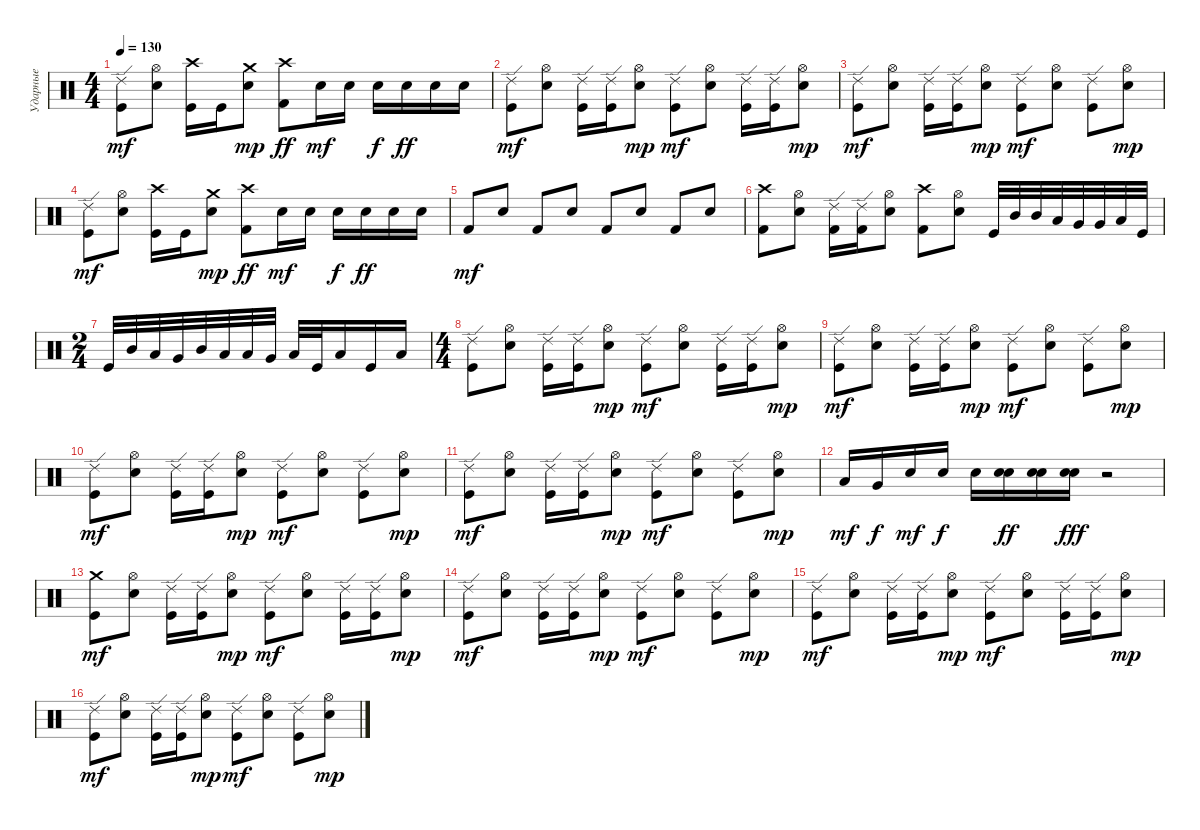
\track ("Ударные" "Ударные") {instrument percussion}
\staff {score}
\articulation defaults
\ts (4 4)
\tempo 130
\clef neutral
\ks c
("Kick (hit)" "Ride (edge) 2").8{dy mf} ("Electric Snare (hit)" "Hi-Hat (open)").8 ("Kick (hit)" "Crash high (hit)").16 "Kick (hit)".16 ("Electric Snare (hit)" "Crash medium (hit)").8{dy mp} ("Kick (hit) 2" "Crash high (hit)").8{dy ff} "Electric Snare (hit)".16{dy mf} "Electric Snare (hit)".16 "Electric Snare (hit)".16{dy f} "Electric Snare (hit)".16{dy ff} "Electric Snare (hit)".16 "Electric Snare (hit)".16 |
("Kick (hit)" "Ride (edge) 2").8{dy mf} ("Electric Snare (hit)" "Hi-Hat (open)").8 ("Kick (hit)" "Ride (edge) 2").16 ("Kick (hit)" "Ride (edge) 2").16 ("Electric Snare (hit)" "Hi-Hat (open)").8{dy mp} ("Kick (hit)" "Ride (edge) 2").8{dy mf} ("Electric Snare (hit)" "Hi-Hat (open)").8 ("Kick (hit)" "Ride (edge) 2").16 ("Kick (hit)" "Ride (edge) 2").16 ("Electric Snare (hit)" "Hi-Hat (open)").8{dy mp} |
("Kick (hit)" "Ride (edge) 2").8{dy mf} ("Electric Snare (hit)" "Hi-Hat (open)").8 ("Kick (hit)" "Ride (edge) 2").16 ("Kick (hit)" "Ride (edge) 2").16 ("Electric Snare (hit)" "Hi-Hat (open)").8{dy mp} ("Kick (hit)" "Ride (edge) 2").8{dy mf} ("Electric Snare (hit)" "Hi-Hat (open)").8 ("Kick (hit)" "Ride (edge) 2").8 ("Electric Snare (hit)" "Hi-Hat (open)").8{dy mp} |
("Kick (hit)" "Ride (edge) 2").8{dy mf} ("Electric Snare (hit)" "Hi-Hat (open)").8 ("Kick (hit)" "Crash high (hit)").16 "Kick (hit)".16 ("Electric Snare (hit)" "Crash medium (hit)").8{dy mp} ("Kick (hit) 2" "Crash high (hit)").8{dy ff} "Electric Snare (hit)".16{dy mf} "Electric Snare (hit)".16 "Electric Snare (hit)".16{dy f} "Electric Snare (hit)".16{dy ff} "Electric Snare (hit)".16 "Electric Snare (hit)".16 |
"Kick (hit) 2".8{dy mf} "Electric Snare (hit)".8 "Kick (hit) 2".8 "Electric Snare (hit)".8 "Kick (hit) 2".8 "Electric Snare (hit)".8 "Kick (hit) 2".8 "Electric Snare (hit)".8 |
("Kick (hit) 2" "Crash high (hit)").8 ("Electric Snare (hit)" "Hi-Hat (open)").8 ("Kick (hit) 2" "Ride (edge) 2").16 ("Kick (hit) 2" "Ride (edge) 2").16 ("Electric Snare (hit)" "Hi-Hat (open)").8 ("Kick (hit) 2" "Crash high (hit)").8 ("Electric Snare (hit)" "Hi-Hat (open)").8 "Kick (hit)".32 "Mid Tom (hit)".32 "Mid Tom (hit)".32 "Low Tom (hit)".32 "Very Low Tom (hit)".32 "Very Low Tom (hit)".32 "Low Floor Tom (hit)".32 "Kick (hit)".32 |
\ts (2 4)
"Kick (hit)".32 "Mid Tom (hit)".32 "Low Tom (hit)".32 "Very Low Tom (hit)".32 "Mid Tom (hit)".32 "Low Tom (hit)".32 "Low Tom (hit)".32 "Very Low Tom (hit)".32 "Low Floor Tom (hit)".32 "Kick (hit)".32 "Low Tom (hit)".16 "Kick (hit)".16 "Low Floor Tom (hit)".16 |
\ts (4 4)
("Kick (hit)" "Ride (edge) 2").8 ("Electric Snare (hit)" "Hi-Hat (open)").8 ("Kick (hit)" "Ride (edge) 2").16 ("Kick (hit)" "Ride (edge) 2").16 ("Electric Snare (hit)" "Hi-Hat (open)").8{dy mp} ("Kick (hit)" "Ride (edge) 2").8{dy mf} ("Electric Snare (hit)" "Hi-Hat (open)").8 ("Kick (hit)" "Ride (edge) 2").16 ("Kick (hit)" "Ride (edge) 2").16 ("Electric Snare (hit)" "Hi-Hat (open)").8{dy mp} |
("Kick (hit)" "Ride (edge) 2").8{dy mf} ("Electric Snare (hit)" "Hi-Hat (open)").8 ("Kick (hit)" "Ride (edge) 2").16 ("Kick (hit)" "Ride (edge) 2").16 ("Electric Snare (hit)" "Hi-Hat (open)").8{dy mp} ("Kick (hit)" "Ride (edge) 2").8{dy mf} ("Electric Snare (hit)" "Hi-Hat (open)").8 ("Kick (hit)" "Ride (edge) 2").8 ("Electric Snare (hit)" "Hi-Hat (open)").8{dy mp} |
("Kick (hit)" "Ride (edge) 2").8{dy mf} ("Electric Snare (hit)" "Hi-Hat (open)").8 ("Kick (hit)" "Ride (edge) 2").16 ("Kick (hit)" "Ride (edge) 2").16 ("Electric Snare (hit)" "Hi-Hat (open)").8{dy mp} ("Kick (hit)" "Ride (edge) 2").8{dy mf} ("Electric Snare (hit)" "Hi-Hat (open)").8 ("Kick (hit)" "Ride (edge) 2").8 ("Electric Snare (hit)" "Hi-Hat (open)").8{dy mp} |
("Kick (hit)" "Ride (edge) 2").8{dy mf} ("Electric Snare (hit)" "Hi-Hat (open)").8 ("Kick (hit)" "Ride (edge) 2").16 ("Kick (hit)" "Ride (edge) 2").16 ("Electric Snare (hit)" "Hi-Hat (open)").8{dy mp} ("Kick (hit)" "Ride (edge) 2").8{dy mf} ("Electric Snare (hit)" "Hi-Hat (open)").8 ("Kick (hit)" "Ride (edge) 2").8 ("Electric Snare (hit)" "Hi-Hat (open)").8{dy mp} |
"Low Tom (hit)".16{dy mf} "Very Low Tom (hit)".16{dy f} "Electric Snare (hit)".16{dy mf} "Electric Snare (hit)".16{dy f} "Electric Snare (hit)".16 ("Electric Snare (hit)" "Electric Snare (hit)").16{dy ff} ("Electric Snare (hit)" "Electric Snare (hit)").16 ("Electric Snare (hit)" "Electric Snare (hit)").16{dy fff} r.2 |
("Kick (hit)" "Crash medium (hit)").8{dy mf} ("Electric Snare (hit)" "Hi-Hat (open)").8 ("Kick (hit)" "Ride (edge) 2").16 ("Kick (hit)" "Ride (edge) 2").16 ("Electric Snare (hit)" "Hi-Hat (open)").8{dy mp} ("Kick (hit)" "Ride (edge) 2").8{dy mf} ("Electric Snare (hit)" "Hi-Hat (open)").8 ("Kick (hit)" "Ride (edge) 2").16 ("Kick (hit)" "Ride (edge) 2").16 ("Electric Snare (hit)" "Hi-Hat (open)").8{dy mp} |
("Kick (hit)" "Ride (edge) 2").8{dy mf} ("Electric Snare (hit)" "Hi-Hat (open)").8 ("Kick (hit)" "Ride (edge) 2").16 ("Kick (hit)" "Ride (edge) 2").16 ("Electric Snare (hit)" "Hi-Hat (open)").8{dy mp} ("Kick (hit)" "Ride (edge) 2").8{dy mf} ("Electric Snare (hit)" "Hi-Hat (open)").8 ("Kick (hit)" "Ride (edge) 2").8 ("Electric Snare (hit)" "Hi-Hat (open)").8{dy mp} |
("Kick (hit)" "Ride (edge) 2").8{dy mf} ("Electric Snare (hit)" "Hi-Hat (open)").8 ("Kick (hit)" "Ride (edge) 2").16 ("Kick (hit)" "Ride (edge) 2").16 ("Electric Snare (hit)" "Hi-Hat (open)").8{dy mp} ("Kick (hit)" "Ride (edge) 2").8{dy mf} ("Electric Snare (hit)" "Hi-Hat (open)").8 ("Kick (hit)" "Ride (edge) 2").16 ("Kick (hit)" "Ride (edge) 2").16 ("Electric Snare (hit)" "Hi-Hat (open)").8{dy mp} |
("Kick (hit)" "Ride (edge) 2").8{dy mf} ("Electric Snare (hit)" "Hi-Hat (open)").8 ("Kick (hit)" "Ride (edge) 2").16 ("Kick (hit)" "Ride (edge) 2").16 ("Electric Snare (hit)" "Hi-Hat (open)").8{dy mp} ("Kick (hit)" "Ride (edge) 2").8{dy mf} ("Electric Snare (hit)" "Hi-Hat (open)").8 ("Kick (hit)" "Ride (edge) 2").8 ("Electric Snare (hit)" "Hi-Hat (open)").8{dy mp}
